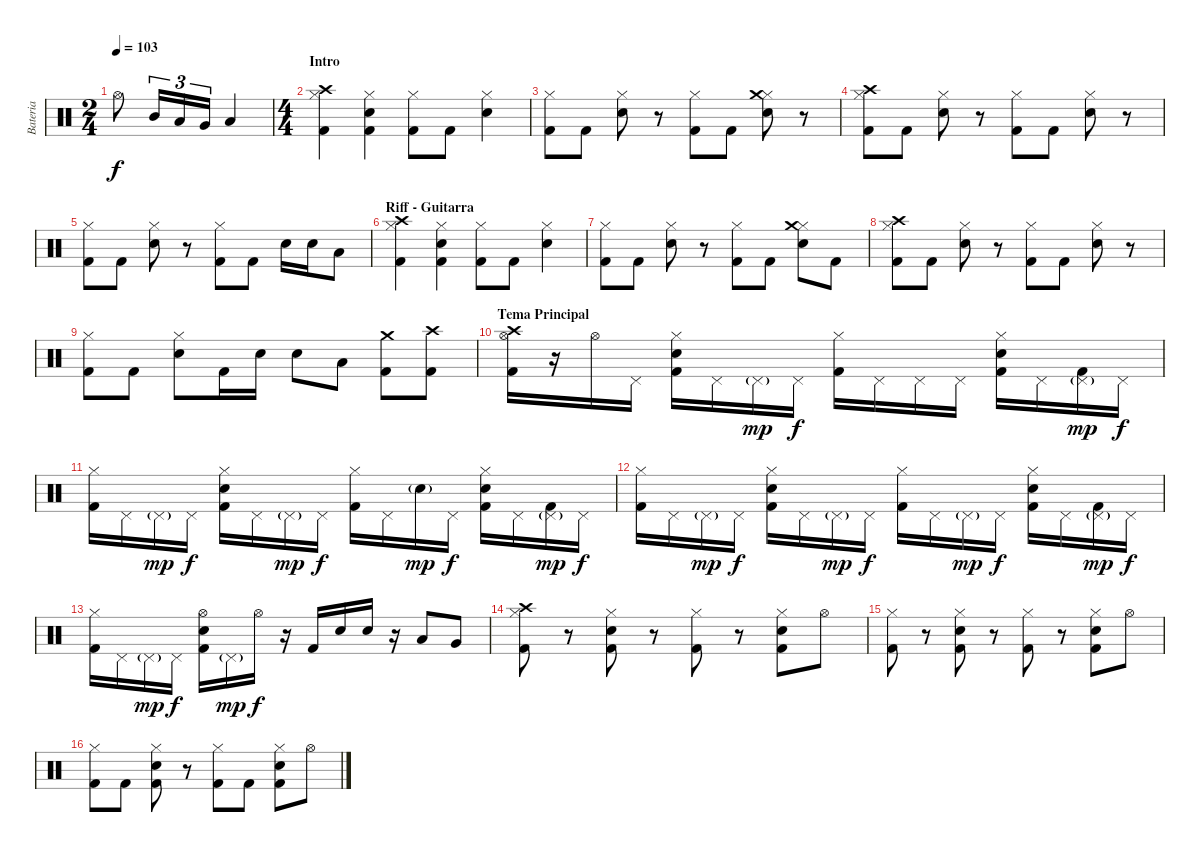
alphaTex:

\track ("Bateria" "Bateria") {instrument percussion}
\staff {score}
\articulation defaults
\ts (2 4)
\tempo 103
\clef neutral
\ks c "Hi-Hat (open)".8{dy f} "Mid Tom (hit)".16{tu (3 2)} "Low Tom (hit)".16{tu (3 2)} "Very Low Tom (hit)".16{tu (3 2)} "Low Floor Tom (hit)".4
|
\ts (4 4)
\section ("" "Intro")
("Hi-Hat (closed)" "Kick (hit) 2" "Crash high (hit)").4 ("Hi-Hat (closed)" "Snare (hit) 2" "Kick (hit) 2").4 ("Hi-Hat (closed)" "Kick (hit) 2").8 "Kick (hit) 2".8 ("Hi-Hat (closed)" "Snare (hit) 2").4 |
("Hi-Hat (closed)" "Kick (hit) 2").8 "Kick (hit) 2".8 ("Hi-Hat (closed)" "Snare (hit) 2").8 r.8 ("Hi-Hat (closed)" "Kick (hit) 2").8 "Kick (hit) 2".8 ("Hi-Hat (closed)" "Snare (hit) 2" "Crash medium (hit)").8 r.8 |
("Hi-Hat (closed)" "Kick (hit) 2" "Crash high (hit)").8 "Kick (hit) 2".8 ("Hi-Hat (closed)" "Snare (hit) 2").8 r.8 ("Hi-Hat (closed)" "Kick (hit) 2").8 "Kick (hit) 2".8 ("Hi-Hat (closed)" "Snare (hit) 2").8 r.8 |
("Hi-Hat (closed)" "Kick (hit) 2").8 "Kick (hit) 2".8 ("Hi-Hat (closed)" "Snare (hit) 2").8 r.8 ("Hi-Hat (closed)" "Kick (hit) 2").8 "Kick (hit) 2".8 "Snare (hit) 2".16 "Snare (hit) 2".16 "Low Tom (hit)".8 |
\section ("" "Riff - Guitarra")
("Hi-Hat (closed)" "Kick (hit) 2" "Crash high (hit)").4 ("Hi-Hat (closed)" "Snare (hit) 2" "Kick (hit) 2").4 ("Hi-Hat (closed)" "Kick (hit) 2").8 "Kick (hit) 2".8 ("Hi-Hat (closed)" "Snare (hit) 2").4 |
("Hi-Hat (closed)" "Kick (hit) 2").8 "Kick (hit) 2".8 ("Hi-Hat (closed)" "Snare (hit) 2").8 r.8 ("Hi-Hat (closed)" "Kick (hit) 2").8 "Kick (hit) 2".8 ("Hi-Hat (closed)" "Snare (hit) 2" "Crash medium (hit)").8 "Kick (hit) 2".8 |
("Hi-Hat (closed)" "Kick (hit) 2" "Crash high (hit)").8 "Kick (hit) 2".8 ("Hi-Hat (closed)" "Snare (hit) 2").8 r.8 ("Hi-Hat (closed)" "Kick (hit) 2").8 "Kick (hit) 2".8 ("Hi-Hat (closed)" "Snare (hit) 2").8 r.8 |
("Hi-Hat (closed)" "Kick (hit) 2").8 "Kick (hit) 2".8 ("Hi-Hat (closed)" "Snare (hit) 2").8 "Kick (hit) 2".16 "Snare (hit) 2".16 "Snare (hit) 2".8 "Low Tom (hit)".8 ("Kick (hit) 2" "Crash medium (hit)").8 ("Kick (hit) 2" "Crash high (hit)").8 |
\section ("" "Tema Principal")
("Hi-Hat (open)" "Kick (hit) 2" "Crash high (hit)").16 r.16 "Hi-Hat (open)".16 "Pedal Hi-Hat (hit)".16 ("Hi-Hat (closed)" "Snare (hit) 2" "Kick (hit) 2").16 "Pedal Hi-Hat (hit)".16 "Pedal Hi-Hat (hit)"{g}.16{dy mp} "Pedal Hi-Hat (hit)".16{dy f} ("Hi-Hat (closed)" "Kick (hit) 2").16 "Pedal Hi-Hat (hit)".16 "Pedal Hi-Hat (hit)".16 "Pedal Hi-Hat (hit)".16 ("Hi-Hat (closed)" "Snare (hit) 2" "Kick (hit) 2").16 "Pedal Hi-Hat (hit)".16 ("Pedal Hi-Hat (hit)"{g} "Kick (hit) 2").16{dy mp} "Pedal Hi-Hat (hit)".16{dy f} |
("Hi-Hat (closed)" "Kick (hit) 2").16 "Pedal Hi-Hat (hit)".16 "Pedal Hi-Hat (hit)"{g}.16{dy mp} "Pedal Hi-Hat (hit)".16{dy f} ("Hi-Hat (closed)" "Snare (hit) 2" "Kick (hit) 2").16 "Pedal Hi-Hat (hit)".16 "Pedal Hi-Hat (hit)"{g}.16{dy mp} "Pedal Hi-Hat (hit)".16{dy f} ("Hi-Hat (closed)" "Kick (hit) 2").16 "Pedal Hi-Hat (hit)".16 "Snare (hit)"{g}.16{dy mp} "Pedal Hi-Hat (hit)".16{dy f} ("Hi-Hat (closed)" "Snare (hit) 2" "Kick (hit) 2").16 "Pedal Hi-Hat (hit)".16 ("Pedal Hi-Hat (hit)"{g} "Kick (hit) 2").16{dy mp} "Pedal Hi-Hat (hit)".16{dy f} |
("Hi-Hat (closed)" "Kick (hit) 2").16 "Pedal Hi-Hat (hit)".16 "Pedal Hi-Hat (hit)"{g}.16{dy mp} "Pedal Hi-Hat (hit)".16{dy f} ("Hi-Hat (closed)" "Snare (hit) 2" "Kick (hit) 2").16 "Pedal Hi-Hat (hit)".16 "Pedal Hi-Hat (hit)"{g}.16{dy mp} "Pedal Hi-Hat (hit)".16{dy f} ("Hi-Hat (closed)" "Kick (hit) 2").16 "Pedal Hi-Hat (hit)".16 "Pedal Hi-Hat (hit)"{g}.16{dy mp} "Pedal Hi-Hat (hit)".16{dy f} ("Hi-Hat (closed)" "Snare (hit) 2" "Kick (hit) 2").16 "Pedal Hi-Hat (hit)".16 ("Pedal Hi-Hat (hit)"{g} "Kick (hit) 2").16{dy mp} "Pedal Hi-Hat (hit)".16{dy f} |
("Hi-Hat (closed)" "Kick (hit) 2").16 "Pedal Hi-Hat (hit)".16 "Pedal Hi-Hat (hit)"{g}.16{dy mp} "Pedal Hi-Hat (hit)".16{dy f} ("Hi-Hat (open)" "Snare (hit) 2" "Kick (hit) 2").16 "Pedal Hi-Hat (hit)"{g}.16{dy mp} "Hi-Hat (open)".16{dy f} r.16 "Kick (hit) 2".16 "Snare (hit) 2".16 "Snare (hit) 2".16 r.16 "Low Tom (hit)".8 "Very Low Tom (hit)".8 |
("Hi-Hat (closed)" "Kick (hit) 2" "Crash high (hit)").8 r.8 ("Hi-Hat (closed)" "Snare (hit) 2" "Kick (hit) 2").8 r.8 ("Hi-Hat (closed)" "Kick (hit) 2").8 r.8 ("Hi-Hat (closed)" "Snare (hit) 2" "Kick (hit) 2").8 "Hi-Hat (open)".8 |
("Hi-Hat (closed)" "Kick (hit) 2").8 r.8 ("Hi-Hat (closed)" "Snare (hit) 2" "Kick (hit) 2").8 r.8 ("Hi-Hat (closed)" "Kick (hit) 2").8 r.8 ("Hi-Hat (closed)" "Snare (hit) 2" "Kick (hit) 2").8 "Hi-Hat (open)".8 |
("Hi-Hat (closed)" "Kick (hit) 2").8 "Kick (hit) 2".8 ("Hi-Hat (closed)" "Snare (hit) 2" "Kick (hit) 2").8 r.8 ("Hi-Hat (closed)" "Kick (hit) 2").8 "Kick (hit) 2".8 ("Hi-Hat (closed)" "Snare (hit) 2" "Kick (hit) 2").8 "Hi-Hat (open)".8
